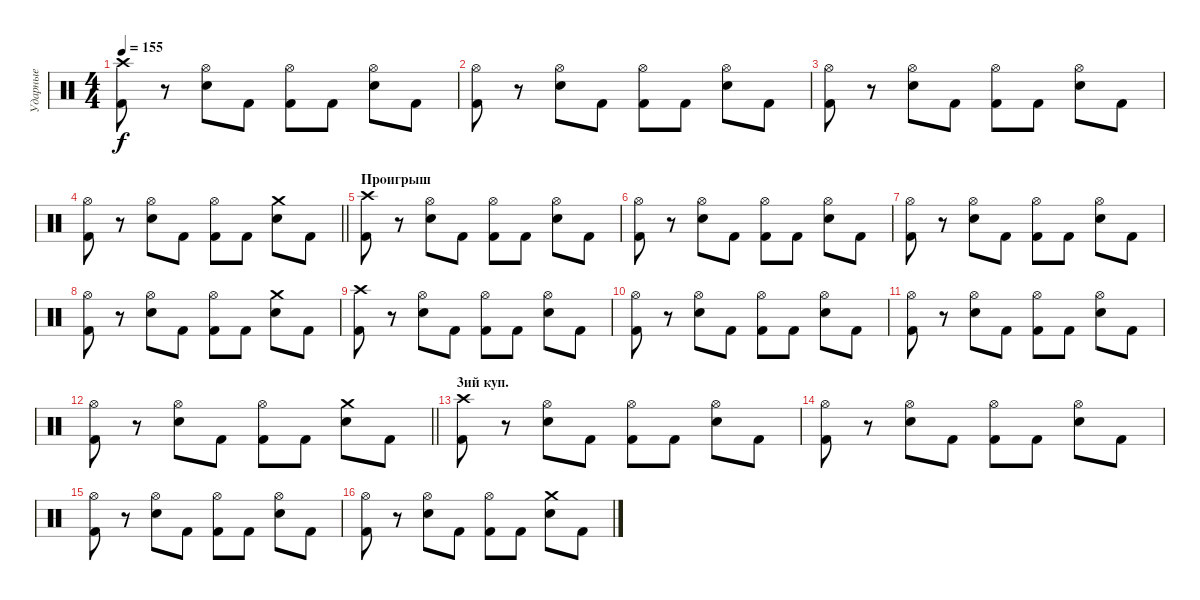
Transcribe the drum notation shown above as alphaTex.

\track ("Ударные" "Ударные") {instrument percussion}
\staff {score}
\articulation defaults
\ts (4 4)
\tempo 155
\clef neutral
\ks c
("Crash high (hit)" "Kick (hit) 2").8{dy f} r.8 ("Hi-Hat (open)" "Electric Snare (hit)").8 "Kick (hit) 2".8 ("Hi-Hat (open)" "Kick (hit) 2").8 "Kick (hit) 2".8 ("Hi-Hat (open)" "Electric Snare (hit)").8 "Kick (hit) 2".8 |
("Hi-Hat (open)" "Kick (hit) 2").8 r.8 ("Hi-Hat (open)" "Electric Snare (hit)").8 "Kick (hit) 2".8 ("Hi-Hat (open)" "Kick (hit) 2").8 "Kick (hit) 2".8 ("Hi-Hat (open)" "Electric Snare (hit)").8 "Kick (hit) 2".8 |
("Hi-Hat (open)" "Kick (hit) 2").8 r.8 ("Hi-Hat (open)" "Electric Snare (hit)").8 "Kick (hit) 2".8 ("Hi-Hat (open)" "Kick (hit) 2").8 "Kick (hit) 2".8 ("Hi-Hat (open)" "Electric Snare (hit)").8 "Kick (hit) 2".8 |
\barLineRight lightlight
("Hi-Hat (open)" "Kick (hit) 2").8 r.8 ("Hi-Hat (open)" "Electric Snare (hit)").8 "Kick (hit) 2".8 ("Hi-Hat (open)" "Kick (hit) 2").8 "Kick (hit) 2".8 ("Crash medium (hit)" "Electric Snare (hit)").8 "Kick (hit) 2".8 |
\section ("" "Проигрыш")
("Crash high (hit)" "Kick (hit) 2").8 r.8 ("Hi-Hat (open)" "Electric Snare (hit)").8 "Kick (hit) 2".8 ("Hi-Hat (open)" "Kick (hit) 2").8 "Kick (hit) 2".8 ("Hi-Hat (open)" "Electric Snare (hit)").8 "Kick (hit) 2".8 |
("Hi-Hat (open)" "Kick (hit) 2").8 r.8 ("Hi-Hat (open)" "Electric Snare (hit)").8 "Kick (hit) 2".8 ("Hi-Hat (open)" "Kick (hit) 2").8 "Kick (hit) 2".8 ("Hi-Hat (open)" "Electric Snare (hit)").8 "Kick (hit) 2".8 |
("Hi-Hat (open)" "Kick (hit) 2").8 r.8 ("Hi-Hat (open)" "Electric Snare (hit)").8 "Kick (hit) 2".8 ("Hi-Hat (open)" "Kick (hit) 2").8 "Kick (hit) 2".8 ("Hi-Hat (open)" "Electric Snare (hit)").8 "Kick (hit) 2".8 |
("Hi-Hat (open)" "Kick (hit) 2").8 r.8 ("Hi-Hat (open)" "Electric Snare (hit)").8 "Kick (hit) 2".8 ("Hi-Hat (open)" "Kick (hit) 2").8 "Kick (hit) 2".8 ("Crash medium (hit)" "Electric Snare (hit)").8 "Kick (hit) 2".8 |
("Crash high (hit)" "Kick (hit) 2").8 r.8 ("Hi-Hat (open)" "Electric Snare (hit)").8 "Kick (hit) 2".8 ("Hi-Hat (open)" "Kick (hit) 2").8 "Kick (hit) 2".8 ("Hi-Hat (open)" "Electric Snare (hit)").8 "Kick (hit) 2".8 |
("Hi-Hat (open)" "Kick (hit) 2").8 r.8 ("Hi-Hat (open)" "Electric Snare (hit)").8 "Kick (hit) 2".8 ("Hi-Hat (open)" "Kick (hit) 2").8 "Kick (hit) 2".8 ("Hi-Hat (open)" "Electric Snare (hit)").8 "Kick (hit) 2".8 |
("Hi-Hat (open)" "Kick (hit) 2").8 r.8 ("Hi-Hat (open)" "Electric Snare (hit)").8 "Kick (hit) 2".8 ("Hi-Hat (open)" "Kick (hit) 2").8 "Kick (hit) 2".8 ("Hi-Hat (open)" "Electric Snare (hit)").8 "Kick (hit) 2".8 |
\barLineRight lightlight
("Hi-Hat (open)" "Kick (hit) 2").8 r.8 ("Hi-Hat (open)" "Electric Snare (hit)").8 "Kick (hit) 2".8 ("Hi-Hat (open)" "Kick (hit) 2").8 "Kick (hit) 2".8 ("Crash medium (hit)" "Electric Snare (hit)").8 "Kick (hit) 2".8 |
\section ("" "3ий куп.")
("Crash high (hit)" "Kick (hit) 2").8 r.8 ("Hi-Hat (open)" "Electric Snare (hit)").8 "Kick (hit) 2".8 ("Hi-Hat (open)" "Kick (hit) 2").8 "Kick (hit) 2".8 ("Hi-Hat (open)" "Electric Snare (hit)").8 "Kick (hit) 2".8 |
("Hi-Hat (open)" "Kick (hit) 2").8 r.8 ("Hi-Hat (open)" "Electric Snare (hit)").8 "Kick (hit) 2".8 ("Hi-Hat (open)" "Kick (hit) 2").8 "Kick (hit) 2".8 ("Hi-Hat (open)" "Electric Snare (hit)").8 "Kick (hit) 2".8 |
("Hi-Hat (open)" "Kick (hit) 2").8 r.8 ("Hi-Hat (open)" "Electric Snare (hit)").8 "Kick (hit) 2".8 ("Hi-Hat (open)" "Kick (hit) 2").8 "Kick (hit) 2".8 ("Hi-Hat (open)" "Electric Snare (hit)").8 "Kick (hit) 2".8 |
("Hi-Hat (open)" "Kick (hit) 2").8 r.8 ("Hi-Hat (open)" "Electric Snare (hit)").8 "Kick (hit) 2".8 ("Hi-Hat (open)" "Kick (hit) 2").8 "Kick (hit) 2".8 ("Crash medium (hit)" "Electric Snare (hit)").8 "Kick (hit) 2".8
